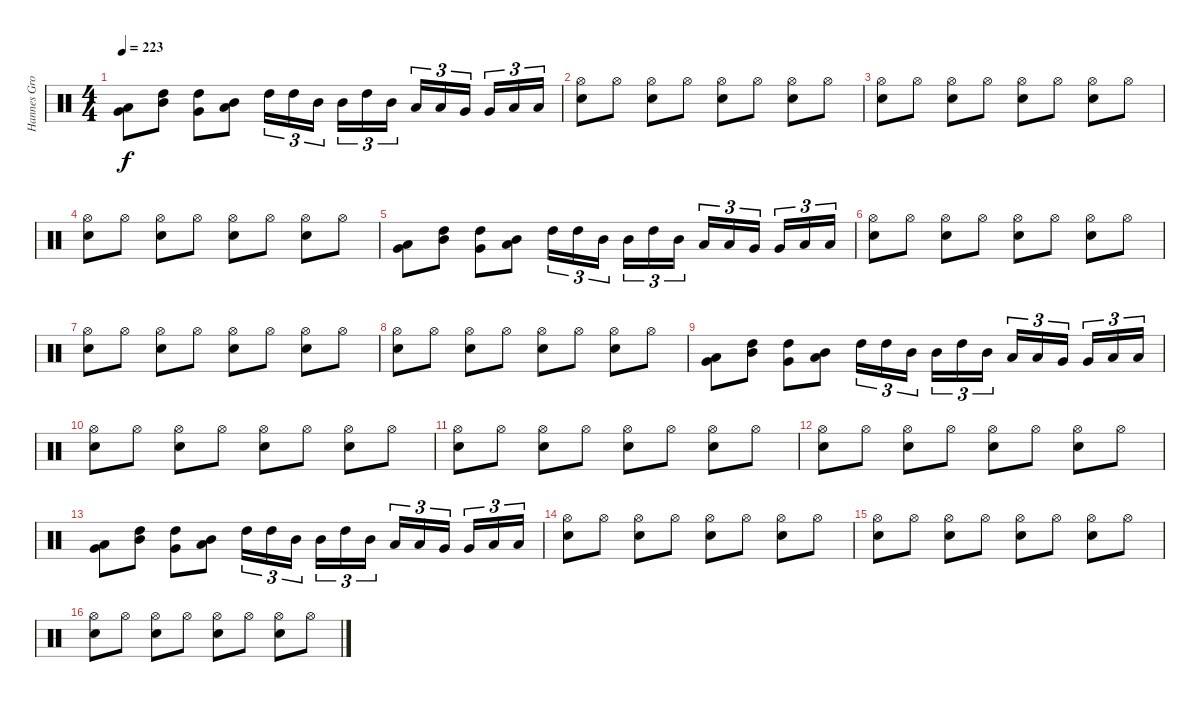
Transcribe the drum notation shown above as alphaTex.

\track ("Hannes Grossmann" "Hannes Gro") {instrument percussion}
\staff {score}
\articulation defaults
\ts (4 4)
\tempo 223
\clef neutral
\ks c
("Very Low Tom (hit)" "Low Tom (hit)").8{dy f} ("Mid Tom (hit)" "High Tom (hit)").8 ("High Tom (hit)" "Very Low Tom (hit)").8 ("Low Floor Tom (hit)" "Mid Tom (hit)").8 "High Tom (hit)".16{tu (3 2)} "High Tom (hit)".16{tu (3 2)} "Mid Tom (hit)".16{tu (3 2) beam splitsecondary} "Mid Tom (hit)".16{tu (3 2)} "High Tom (hit)".16{tu (3 2)} "Mid Tom (hit)".16{tu (3 2)} "Low Tom (hit)".16{tu (3 2)} "Low Tom (hit)".16{tu (3 2)} "Very Low Tom (hit)".16{tu (3 2) beam splitsecondary} "Very Low Tom (hit)".16{tu (3 2)} "Low Floor Tom (hit)".16{tu (3 2)} "Low Floor Tom (hit)".16{tu (3 2)} |
("Hi-Hat (open)" "Electric Snare (hit)").8 "Hi-Hat (open)".8 ("Hi-Hat (open)" "Electric Snare (hit)").8 "Hi-Hat (open)".8 ("Hi-Hat (open)" "Electric Snare (hit)").8 "Hi-Hat (open)".8 ("Hi-Hat (open)" "Electric Snare (hit)").8 "Hi-Hat (open)".8 |
("Hi-Hat (open)" "Electric Snare (hit)").8 "Hi-Hat (open)".8 ("Hi-Hat (open)" "Electric Snare (hit)").8 "Hi-Hat (open)".8 ("Hi-Hat (open)" "Electric Snare (hit)").8 "Hi-Hat (open)".8 ("Hi-Hat (open)" "Electric Snare (hit)").8 "Hi-Hat (open)".8 |
("Hi-Hat (open)" "Electric Snare (hit)").8 "Hi-Hat (open)".8 ("Hi-Hat (open)" "Electric Snare (hit)").8 "Hi-Hat (open)".8 ("Hi-Hat (open)" "Electric Snare (hit)").8 "Hi-Hat (open)".8 ("Hi-Hat (open)" "Electric Snare (hit)").8 "Hi-Hat (open)".8 |
("Very Low Tom (hit)" "Low Tom (hit)").8 ("Mid Tom (hit)" "High Tom (hit)").8 ("High Tom (hit)" "Very Low Tom (hit)").8 ("Low Floor Tom (hit)" "Mid Tom (hit)").8 "High Tom (hit)".16{tu (3 2)} "High Tom (hit)".16{tu (3 2)} "Mid Tom (hit)".16{tu (3 2) beam splitsecondary} "Mid Tom (hit)".16{tu (3 2)} "High Tom (hit)".16{tu (3 2)} "Mid Tom (hit)".16{tu (3 2)} "Low Tom (hit)".16{tu (3 2)} "Low Tom (hit)".16{tu (3 2)} "Very Low Tom (hit)".16{tu (3 2) beam splitsecondary} "Very Low Tom (hit)".16{tu (3 2)} "Low Floor Tom (hit)".16{tu (3 2)} "Low Floor Tom (hit)".16{tu (3 2)} |
("Hi-Hat (open)" "Electric Snare (hit)").8 "Hi-Hat (open)".8 ("Hi-Hat (open)" "Electric Snare (hit)").8 "Hi-Hat (open)".8 ("Hi-Hat (open)" "Electric Snare (hit)").8 "Hi-Hat (open)".8 ("Hi-Hat (open)" "Electric Snare (hit)").8 "Hi-Hat (open)".8 |
("Hi-Hat (open)" "Electric Snare (hit)").8 "Hi-Hat (open)".8 ("Hi-Hat (open)" "Electric Snare (hit)").8 "Hi-Hat (open)".8 ("Hi-Hat (open)" "Electric Snare (hit)").8 "Hi-Hat (open)".8 ("Hi-Hat (open)" "Electric Snare (hit)").8 "Hi-Hat (open)".8 |
("Hi-Hat (open)" "Electric Snare (hit)").8 "Hi-Hat (open)".8 ("Hi-Hat (open)" "Electric Snare (hit)").8 "Hi-Hat (open)".8 ("Hi-Hat (open)" "Electric Snare (hit)").8 "Hi-Hat (open)".8 ("Hi-Hat (open)" "Electric Snare (hit)").8 "Hi-Hat (open)".8 |
("Very Low Tom (hit)" "Low Tom (hit)").8 ("Mid Tom (hit)" "High Tom (hit)").8 ("High Tom (hit)" "Very Low Tom (hit)").8 ("Low Floor Tom (hit)" "Mid Tom (hit)").8 "High Tom (hit)".16{tu (3 2)} "High Tom (hit)".16{tu (3 2)} "Mid Tom (hit)".16{tu (3 2) beam splitsecondary} "Mid Tom (hit)".16{tu (3 2)} "High Tom (hit)".16{tu (3 2)} "Mid Tom (hit)".16{tu (3 2)} "Low Tom (hit)".16{tu (3 2)} "Low Tom (hit)".16{tu (3 2)} "Very Low Tom (hit)".16{tu (3 2) beam splitsecondary} "Very Low Tom (hit)".16{tu (3 2)} "Low Floor Tom (hit)".16{tu (3 2)} "Low Floor Tom (hit)".16{tu (3 2)} |
("Hi-Hat (open)" "Electric Snare (hit)").8 "Hi-Hat (open)".8 ("Hi-Hat (open)" "Electric Snare (hit)").8 "Hi-Hat (open)".8 ("Hi-Hat (open)" "Electric Snare (hit)").8 "Hi-Hat (open)".8 ("Hi-Hat (open)" "Electric Snare (hit)").8 "Hi-Hat (open)".8 |
("Hi-Hat (open)" "Electric Snare (hit)").8 "Hi-Hat (open)".8 ("Hi-Hat (open)" "Electric Snare (hit)").8 "Hi-Hat (open)".8 ("Hi-Hat (open)" "Electric Snare (hit)").8 "Hi-Hat (open)".8 ("Hi-Hat (open)" "Electric Snare (hit)").8 "Hi-Hat (open)".8 |
("Hi-Hat (open)" "Electric Snare (hit)").8 "Hi-Hat (open)".8 ("Hi-Hat (open)" "Electric Snare (hit)").8 "Hi-Hat (open)".8 ("Hi-Hat (open)" "Electric Snare (hit)").8 "Hi-Hat (open)".8 ("Hi-Hat (open)" "Electric Snare (hit)").8 "Hi-Hat (open)".8 |
("Very Low Tom (hit)" "Low Tom (hit)").8 ("Mid Tom (hit)" "High Tom (hit)").8 ("High Tom (hit)" "Very Low Tom (hit)").8 ("Low Floor Tom (hit)" "Mid Tom (hit)").8 "High Tom (hit)".16{tu (3 2)} "High Tom (hit)".16{tu (3 2)} "Mid Tom (hit)".16{tu (3 2) beam splitsecondary} "Mid Tom (hit)".16{tu (3 2)} "High Tom (hit)".16{tu (3 2)} "Mid Tom (hit)".16{tu (3 2)} "Low Tom (hit)".16{tu (3 2)} "Low Tom (hit)".16{tu (3 2)} "Very Low Tom (hit)".16{tu (3 2) beam splitsecondary} "Very Low Tom (hit)".16{tu (3 2)} "Low Floor Tom (hit)".16{tu (3 2)} "Low Floor Tom (hit)".16{tu (3 2)} |
("Hi-Hat (open)" "Electric Snare (hit)").8 "Hi-Hat (open)".8 ("Hi-Hat (open)" "Electric Snare (hit)").8 "Hi-Hat (open)".8 ("Hi-Hat (open)" "Electric Snare (hit)").8 "Hi-Hat (open)".8 ("Hi-Hat (open)" "Electric Snare (hit)").8 "Hi-Hat (open)".8 |
("Hi-Hat (open)" "Electric Snare (hit)").8 "Hi-Hat (open)".8 ("Hi-Hat (open)" "Electric Snare (hit)").8 "Hi-Hat (open)".8 ("Hi-Hat (open)" "Electric Snare (hit)").8 "Hi-Hat (open)".8 ("Hi-Hat (open)" "Electric Snare (hit)").8 "Hi-Hat (open)".8 |
("Hi-Hat (open)" "Electric Snare (hit)").8 "Hi-Hat (open)".8 ("Hi-Hat (open)" "Electric Snare (hit)").8 "Hi-Hat (open)".8 ("Hi-Hat (open)" "Electric Snare (hit)").8 "Hi-Hat (open)".8 ("Hi-Hat (open)" "Electric Snare (hit)").8 "Hi-Hat (open)".8
